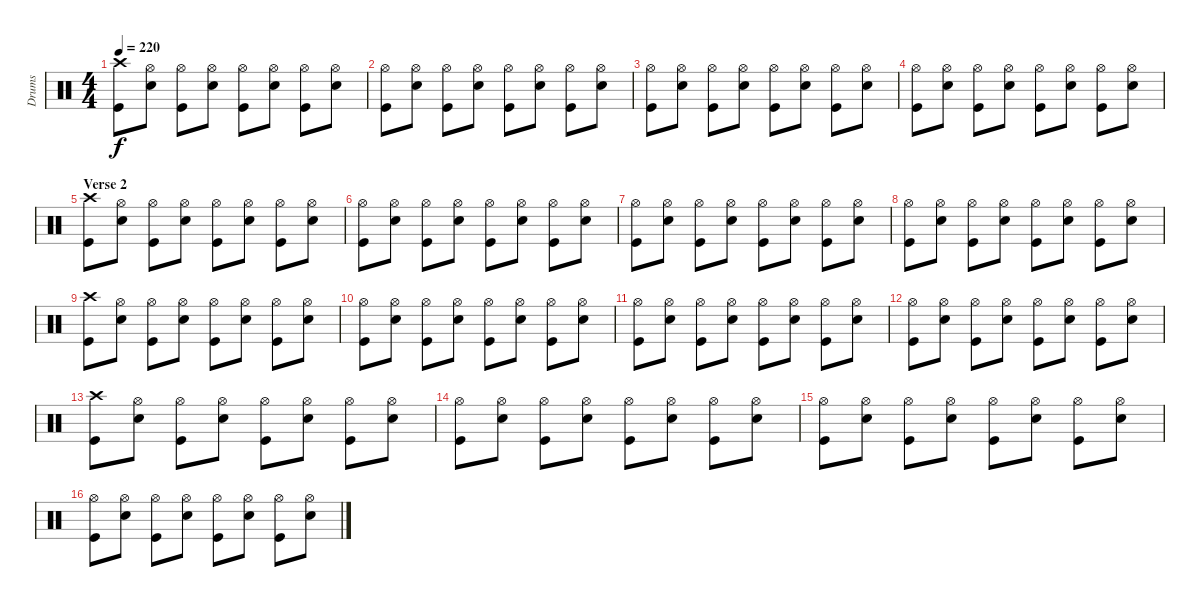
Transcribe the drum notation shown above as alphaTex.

\track ("Drums" "Drums") {instrument percussion}
\staff {score}
\articulation defaults
\ts (4 4)
\tempo 220
\clef neutral
\ks c
("Crash high (hit)" "Kick (hit)").8{dy f} ("Hi-Hat (open)" "Electric Snare (hit)").8 ("Hi-Hat (open)" "Kick (hit)").8 ("Hi-Hat (open)" "Electric Snare (hit)").8 ("Hi-Hat (open)" "Kick (hit)").8 ("Hi-Hat (open)" "Electric Snare (hit)").8 ("Hi-Hat (open)" "Kick (hit)").8 ("Hi-Hat (open)" "Electric Snare (hit)").8 |
("Hi-Hat (open)" "Kick (hit)").8 ("Hi-Hat (open)" "Electric Snare (hit)").8 ("Hi-Hat (open)" "Kick (hit)").8 ("Hi-Hat (open)" "Electric Snare (hit)").8 ("Hi-Hat (open)" "Kick (hit)").8 ("Hi-Hat (open)" "Electric Snare (hit)").8 ("Hi-Hat (open)" "Kick (hit)").8 ("Hi-Hat (open)" "Electric Snare (hit)").8 |
("Hi-Hat (open)" "Kick (hit)").8 ("Hi-Hat (open)" "Electric Snare (hit)").8 ("Hi-Hat (open)" "Kick (hit)").8 ("Hi-Hat (open)" "Electric Snare (hit)").8 ("Hi-Hat (open)" "Kick (hit)").8 ("Hi-Hat (open)" "Electric Snare (hit)").8 ("Hi-Hat (open)" "Kick (hit)").8 ("Hi-Hat (open)" "Electric Snare (hit)").8 |
("Hi-Hat (open)" "Kick (hit)").8 ("Hi-Hat (open)" "Electric Snare (hit)").8 ("Hi-Hat (open)" "Kick (hit)").8 ("Hi-Hat (open)" "Electric Snare (hit)").8 ("Hi-Hat (open)" "Kick (hit)").8 ("Hi-Hat (open)" "Electric Snare (hit)").8 ("Hi-Hat (open)" "Kick (hit)").8 ("Hi-Hat (open)" "Electric Snare (hit)").8 |
\section ("" "Verse 2")
("Crash high (hit)" "Kick (hit)").8 ("Hi-Hat (open)" "Electric Snare (hit)").8 ("Hi-Hat (open)" "Kick (hit)").8 ("Hi-Hat (open)" "Electric Snare (hit)").8 ("Hi-Hat (open)" "Kick (hit)").8 ("Hi-Hat (open)" "Electric Snare (hit)").8 ("Hi-Hat (open)" "Kick (hit)").8 ("Hi-Hat (open)" "Electric Snare (hit)").8 |
("Hi-Hat (open)" "Kick (hit)").8 ("Hi-Hat (open)" "Electric Snare (hit)").8 ("Hi-Hat (open)" "Kick (hit)").8 ("Hi-Hat (open)" "Electric Snare (hit)").8 ("Hi-Hat (open)" "Kick (hit)").8 ("Hi-Hat (open)" "Electric Snare (hit)").8 ("Hi-Hat (open)" "Kick (hit)").8 ("Hi-Hat (open)" "Electric Snare (hit)").8 |
("Hi-Hat (open)" "Kick (hit)").8 ("Hi-Hat (open)" "Electric Snare (hit)").8 ("Hi-Hat (open)" "Kick (hit)").8 ("Hi-Hat (open)" "Electric Snare (hit)").8 ("Hi-Hat (open)" "Kick (hit)").8 ("Hi-Hat (open)" "Electric Snare (hit)").8 ("Hi-Hat (open)" "Kick (hit)").8 ("Hi-Hat (open)" "Electric Snare (hit)").8 |
("Hi-Hat (open)" "Kick (hit)").8 ("Hi-Hat (open)" "Electric Snare (hit)").8 ("Hi-Hat (open)" "Kick (hit)").8 ("Hi-Hat (open)" "Electric Snare (hit)").8 ("Hi-Hat (open)" "Kick (hit)").8 ("Hi-Hat (open)" "Electric Snare (hit)").8 ("Hi-Hat (open)" "Kick (hit)").8 ("Hi-Hat (open)" "Electric Snare (hit)").8 |
("Crash high (hit)" "Kick (hit)").8 ("Hi-Hat (open)" "Electric Snare (hit)").8 ("Hi-Hat (open)" "Kick (hit)").8 ("Hi-Hat (open)" "Electric Snare (hit)").8 ("Hi-Hat (open)" "Kick (hit)").8 ("Hi-Hat (open)" "Electric Snare (hit)").8 ("Hi-Hat (open)" "Kick (hit)").8 ("Hi-Hat (open)" "Electric Snare (hit)").8 |
("Hi-Hat (open)" "Kick (hit)").8 ("Hi-Hat (open)" "Electric Snare (hit)").8 ("Hi-Hat (open)" "Kick (hit)").8 ("Hi-Hat (open)" "Electric Snare (hit)").8 ("Hi-Hat (open)" "Kick (hit)").8 ("Hi-Hat (open)" "Electric Snare (hit)").8 ("Hi-Hat (open)" "Kick (hit)").8 ("Hi-Hat (open)" "Electric Snare (hit)").8 |
("Hi-Hat (open)" "Kick (hit)").8 ("Hi-Hat (open)" "Electric Snare (hit)").8 ("Hi-Hat (open)" "Kick (hit)").8 ("Hi-Hat (open)" "Electric Snare (hit)").8 ("Hi-Hat (open)" "Kick (hit)").8 ("Hi-Hat (open)" "Electric Snare (hit)").8 ("Hi-Hat (open)" "Kick (hit)").8 ("Hi-Hat (open)" "Electric Snare (hit)").8 |
("Hi-Hat (open)" "Kick (hit)").8 ("Hi-Hat (open)" "Electric Snare (hit)").8 ("Hi-Hat (open)" "Kick (hit)").8 ("Hi-Hat (open)" "Electric Snare (hit)").8 ("Hi-Hat (open)" "Kick (hit)").8 ("Hi-Hat (open)" "Electric Snare (hit)").8 ("Hi-Hat (open)" "Kick (hit)").8 ("Hi-Hat (open)" "Electric Snare (hit)").8 |
("Crash high (hit)" "Kick (hit)").8 ("Hi-Hat (open)" "Electric Snare (hit)").8 ("Hi-Hat (open)" "Kick (hit)").8 ("Hi-Hat (open)" "Electric Snare (hit)").8 ("Hi-Hat (open)" "Kick (hit)").8 ("Hi-Hat (open)" "Electric Snare (hit)").8 ("Hi-Hat (open)" "Kick (hit)").8 ("Hi-Hat (open)" "Electric Snare (hit)").8 |
("Hi-Hat (open)" "Kick (hit)").8 ("Hi-Hat (open)" "Electric Snare (hit)").8 ("Hi-Hat (open)" "Kick (hit)").8 ("Hi-Hat (open)" "Electric Snare (hit)").8 ("Hi-Hat (open)" "Kick (hit)").8 ("Hi-Hat (open)" "Electric Snare (hit)").8 ("Hi-Hat (open)" "Kick (hit)").8 ("Hi-Hat (open)" "Electric Snare (hit)").8 |
("Hi-Hat (open)" "Kick (hit)").8 ("Hi-Hat (open)" "Electric Snare (hit)").8 ("Hi-Hat (open)" "Kick (hit)").8 ("Hi-Hat (open)" "Electric Snare (hit)").8 ("Hi-Hat (open)" "Kick (hit)").8 ("Hi-Hat (open)" "Electric Snare (hit)").8 ("Hi-Hat (open)" "Kick (hit)").8 ("Hi-Hat (open)" "Electric Snare (hit)").8 |
("Hi-Hat (open)" "Kick (hit)").8 ("Hi-Hat (open)" "Electric Snare (hit)").8 ("Hi-Hat (open)" "Kick (hit)").8 ("Hi-Hat (open)" "Electric Snare (hit)").8 ("Hi-Hat (open)" "Kick (hit)").8 ("Hi-Hat (open)" "Electric Snare (hit)").8 ("Hi-Hat (open)" "Kick (hit)").8 ("Hi-Hat (open)" "Electric Snare (hit)").8
